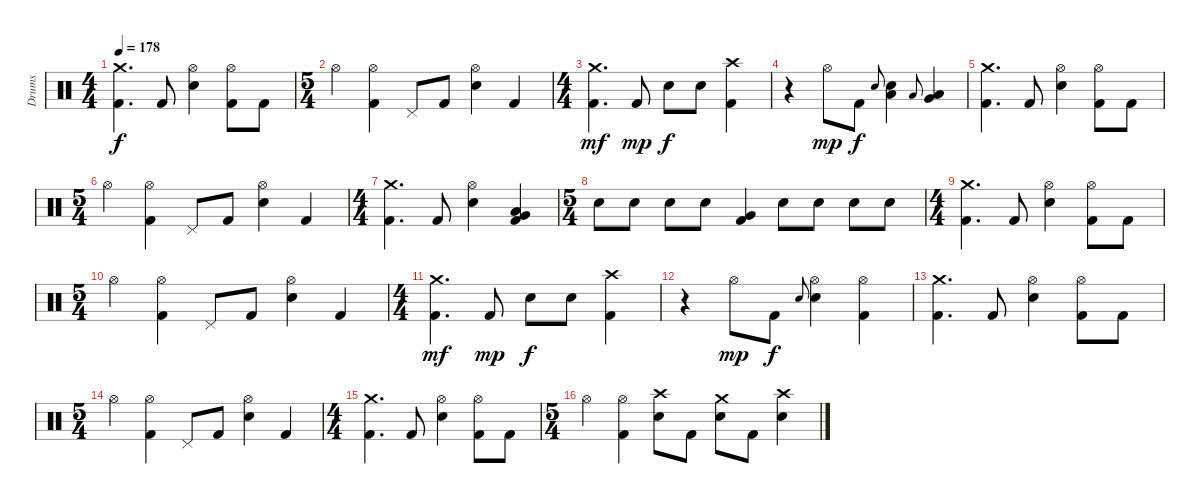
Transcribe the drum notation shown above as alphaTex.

\track ("Drums" "Drums") {instrument percussion}
\staff {score}
\articulation defaults
\ts (4 4)
\tempo 178
\clef neutral
\ks c
("Crash medium (hit)" "Kick (hit) 2").4{d dy f} "Kick (hit) 2".8 ("Hi-Hat (open)" "Electric Snare (hit)").4 ("Hi-Hat (open)" "Kick (hit) 2").8 "Kick (hit) 2".8 |
\ts (5 4)
"Hi-Hat (open)".4 ("Hi-Hat (open)" "Kick (hit) 2").4 "Pedal Hi-Hat (hit)".8 "Kick (hit) 2".8 ("Hi-Hat (open)" "Electric Snare (hit)").4 "Kick (hit) 2".4 |
\ts (4 4)
("Crash medium (hit)" "Kick (hit) 2").4{d dy mf} "Kick (hit) 2".8{dy mp} "Electric Snare (hit)".8{dy f} "Electric Snare (hit)".8 ("Crash high (hit)" "Kick (hit) 2").4 |
r.4 "Hi-Hat (open)".8{dy mp} "Kick (hit) 2".8{dy f} "Electric Snare (hit)".8{gr onbeat} ("Low Tom (hit)" "Electric Snare (hit)").4 "Low Tom (hit)".8{gr onbeat} ("Low Tom (hit)" "Very Low Tom (hit)").4 |
("Crash medium (hit)" "Kick (hit) 2").4{d} "Kick (hit) 2".8 ("Hi-Hat (open)" "Electric Snare (hit)").4 ("Hi-Hat (open)" "Kick (hit) 2").8 "Kick (hit) 2".8 |
\ts (5 4)
"Hi-Hat (open)".4 ("Hi-Hat (open)" "Kick (hit) 2").4 "Pedal Hi-Hat (hit)".8 "Kick (hit) 2".8 ("Hi-Hat (open)" "Electric Snare (hit)").4 "Kick (hit) 2".4 |
\ts (4 4)
("Crash medium (hit)" "Kick (hit) 2").4{d} "Kick (hit) 2".8 ("Hi-Hat (open)" "Electric Snare (hit)").4 ("Very Low Tom (hit)" "Low Tom (hit)" "Kick (hit) 2").4 |
\ts (5 4)
"Electric Snare (hit)".8 "Electric Snare (hit)".8 "Electric Snare (hit)".8 "Electric Snare (hit)".8 ("Very Low Tom (hit)" "Kick (hit) 2").4 "Electric Snare (hit)".8 "Electric Snare (hit)".8 "Electric Snare (hit)".8 "Electric Snare (hit)".8 |
\ts (4 4)
("Crash medium (hit)" "Kick (hit) 2").4{d} "Kick (hit) 2".8 ("Hi-Hat (open)" "Electric Snare (hit)").4 ("Hi-Hat (open)" "Kick (hit) 2").8 "Kick (hit) 2".8 |
\ts (5 4)
"Hi-Hat (open)".4 ("Hi-Hat (open)" "Kick (hit) 2").4 "Pedal Hi-Hat (hit)".8 "Kick (hit) 2".8 ("Hi-Hat (open)" "Electric Snare (hit)").4 "Kick (hit) 2".4 |
\ts (4 4)
("Crash medium (hit)" "Kick (hit) 2").4{d dy mf} "Kick (hit) 2".8{dy mp} "Electric Snare (hit)".8{dy f} "Electric Snare (hit)".8 ("Crash high (hit)" "Kick (hit) 2").4 |
r.4 "Hi-Hat (open)".8{dy mp} "Kick (hit) 2".8{dy f} "Electric Snare (hit)".8{gr onbeat} ("Hi-Hat (open)" "Electric Snare (hit)").4 ("Hi-Hat (open)" "Kick (hit) 2").4 |
("Crash medium (hit)" "Kick (hit) 2").4{d} "Kick (hit) 2".8 ("Hi-Hat (open)" "Electric Snare (hit)").4 ("Hi-Hat (open)" "Kick (hit) 2").8 "Kick (hit) 2".8 |
\ts (5 4)
"Hi-Hat (open)".4 ("Hi-Hat (open)" "Kick (hit) 2").4 "Pedal Hi-Hat (hit)".8 "Kick (hit) 2".8 ("Hi-Hat (open)" "Electric Snare (hit)").4 "Kick (hit) 2".4 |
\ts (4 4)
("Crash medium (hit)" "Kick (hit) 2").4{d} "Kick (hit) 2".8 ("Hi-Hat (open)" "Electric Snare (hit)").4 ("Hi-Hat (open)" "Kick (hit) 2").8 "Kick (hit) 2".8 |
\ts (5 4)
"Hi-Hat (open)".4 ("Hi-Hat (open)" "Kick (hit) 2").4 ("Crash high (hit)" "Electric Snare (hit)").8 "Kick (hit) 2".8 ("Crash medium (hit)" "Electric Snare (hit)").8 "Kick (hit) 2".8 ("Crash high (hit)" "Electric Snare (hit)").4
